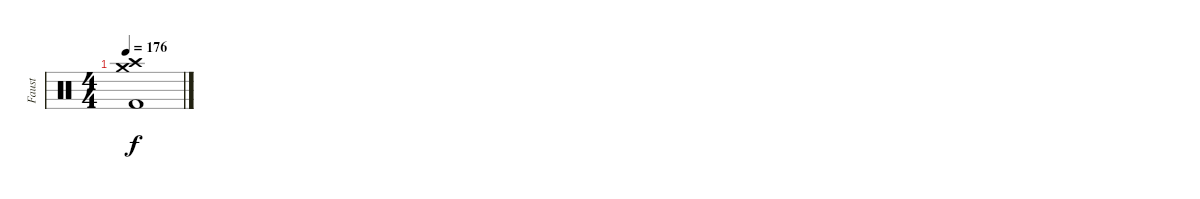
\track ("Faust" "Faust") {instrument percussion}
\staff {score}
\articulation defaults
\ts (4 4)
\tempo 176
\clef neutral
\ks c
("Crash medium (hit)" "Crash high (hit)" "Kick (hit) 2").1{dy f}
